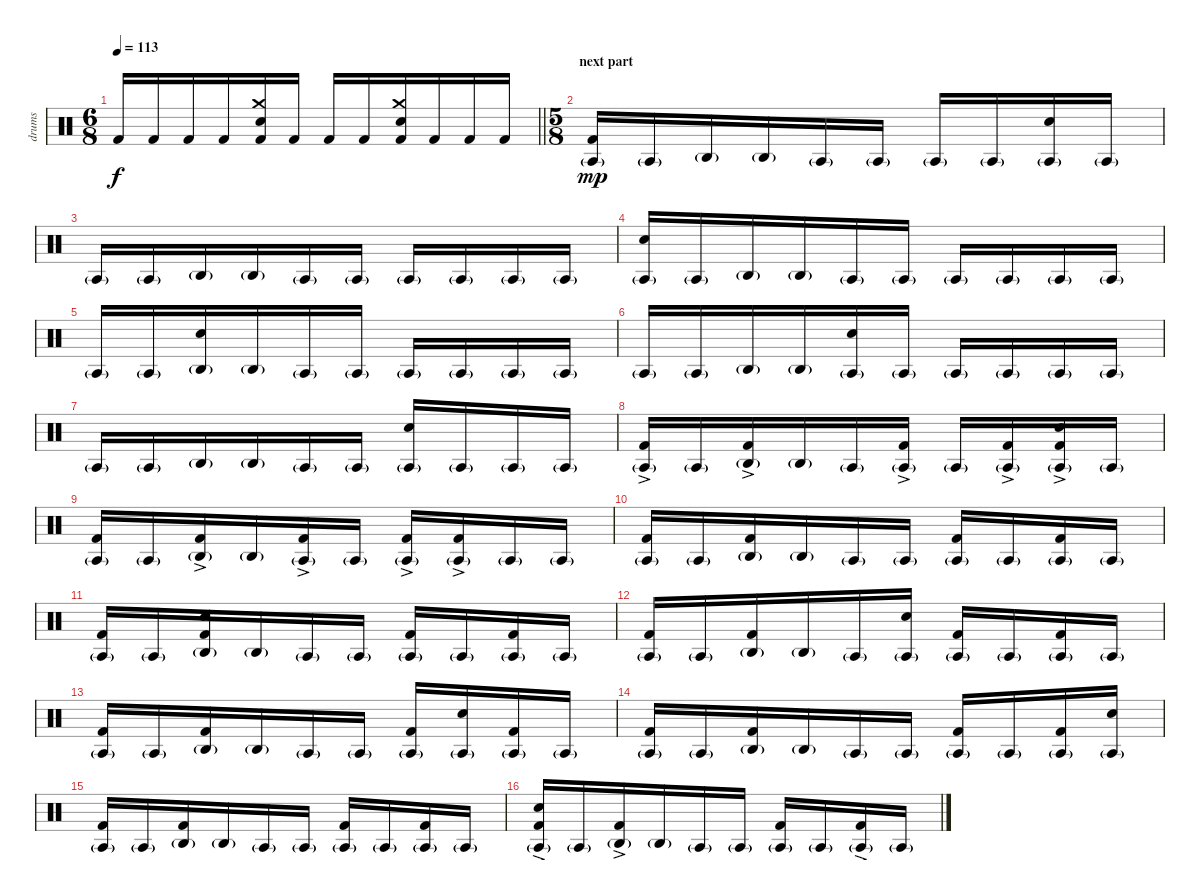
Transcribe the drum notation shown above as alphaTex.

\track ("drums" "drums") {instrument percussion}
\staff {score}
\articulation defaults
\ts (6 8)
\tempo 113
\clef neutral
\barLineRight lightlight
\ks c "Kick (hit) 2".16{dy f} "Kick (hit) 2".16 "Kick (hit) 2".16 "Kick (hit) 2".16
("Crash medium (hit)" "Electric Snare (hit)" "Kick (hit) 2").16 "Kick (hit) 2".16 "Kick (hit) 2".16 "Kick (hit) 2".16 ("Crash medium (hit)" "Electric Snare (hit)" "Kick (hit) 2").16 "Kick (hit) 2".16 "Kick (hit) 2".16 "Kick (hit) 2".16 |
\ts (5 8)
\section ("" "next part")
("Kick (hit) 2" "Agogo tow (hit)"{g}).16{dy mp} "Agogo tow (hit)"{g}.16 "Agogo high (hit)"{g}.16 "Agogo high (hit)"{g}.16 "Agogo tow (hit)"{g}.16 "Agogo tow (hit)"{g}.16 "Agogo tow (hit)"{g}.16 "Agogo tow (hit)"{g}.16 ("Electric Snare (hit)" "Agogo tow (hit)"{g}).16 "Agogo tow (hit)"{g}.16 |
"Agogo tow (hit)"{g}.16 "Agogo tow (hit)"{g}.16 "Agogo high (hit)"{g}.16 "Agogo high (hit)"{g}.16 "Agogo tow (hit)"{g}.16 "Agogo tow (hit)"{g}.16 "Agogo tow (hit)"{g}.16 "Agogo tow (hit)"{g}.16 "Agogo tow (hit)"{g}.16 "Agogo tow (hit)"{g}.16 |
("Electric Snare (hit)" "Agogo tow (hit)"{g}).16 "Agogo tow (hit)"{g}.16 "Agogo high (hit)"{g}.16 "Agogo high (hit)"{g}.16 "Agogo tow (hit)"{g}.16 "Agogo tow (hit)"{g}.16 "Agogo tow (hit)"{g}.16 "Agogo tow (hit)"{g}.16 "Agogo tow (hit)"{g}.16 "Agogo tow (hit)"{g}.16 |
"Agogo tow (hit)"{g}.16 "Agogo tow (hit)"{g}.16 ("Electric Snare (hit)" "Agogo high (hit)"{g}).16 "Agogo high (hit)"{g}.16 "Agogo tow (hit)"{g}.16 "Agogo tow (hit)"{g}.16 "Agogo tow (hit)"{g}.16 "Agogo tow (hit)"{g}.16 "Agogo tow (hit)"{g}.16 "Agogo tow (hit)"{g}.16 |
"Agogo tow (hit)"{g}.16 "Agogo tow (hit)"{g}.16 "Agogo high (hit)"{g}.16 "Agogo high (hit)"{g}.16 ("Electric Snare (hit)" "Agogo tow (hit)"{g}).16 "Agogo tow (hit)"{g}.16 "Agogo tow (hit)"{g}.16 "Agogo tow (hit)"{g}.16 "Agogo tow (hit)"{g}.16 "Agogo tow (hit)"{g}.16 |
"Agogo tow (hit)"{g}.16 "Agogo tow (hit)"{g}.16 "Agogo high (hit)"{g}.16 "Agogo high (hit)"{g}.16 "Agogo tow (hit)"{g}.16 "Agogo tow (hit)"{g}.16 ("Electric Snare (hit)" "Agogo tow (hit)"{g}).16 "Agogo tow (hit)"{g}.16 "Agogo tow (hit)"{g}.16 "Agogo tow (hit)"{g}.16 |
("Kick (hit) 2"{ac} "Agogo tow (hit)"{g}).16 "Agogo tow (hit)"{g}.16 ("Kick (hit) 2"{ac} "Agogo high (hit)"{g}).16 "Agogo high (hit)"{g}.16 "Agogo tow (hit)"{g}.16 ("Kick (hit) 2"{ac} "Agogo tow (hit)"{g}).16 "Agogo tow (hit)"{g}.16 ("Kick (hit) 2"{ac} "Agogo tow (hit)"{g}).16 ("Electric Snare (hit)" "Kick (hit) 2"{ac} "Agogo tow (hit)"{g}).16 "Agogo tow (hit)"{g}.16 |
("Kick (hit) 2" "Agogo tow (hit)"{g}).16 "Agogo tow (hit)"{g}.16 ("Kick (hit) 2"{ac} "Agogo high (hit)"{g}).16 "Agogo high (hit)"{g}.16 ("Kick (hit) 2"{ac} "Agogo tow (hit)"{g}).16 "Agogo tow (hit)"{g}.16 ("Kick (hit) 2"{ac} "Agogo tow (hit)"{g}).16 ("Kick (hit) 2"{ac} "Agogo tow (hit)"{g}).16 "Agogo tow (hit)"{g}.16 "Agogo tow (hit)"{g}.16 |
("Kick (hit) 2" "Agogo tow (hit)"{g}).16 "Agogo tow (hit)"{g}.16 ("Kick (hit) 2" "Agogo high (hit)"{g}).16 "Agogo high (hit)"{g}.16 "Agogo tow (hit)"{g}.16 "Agogo tow (hit)"{g}.16 ("Kick (hit) 2" "Agogo tow (hit)"{g}).16 "Agogo tow (hit)"{g}.16 ("Kick (hit) 2" "Agogo tow (hit)"{g}).16 "Agogo tow (hit)"{g}.16 |
("Kick (hit) 2" "Agogo tow (hit)"{g}).16 "Agogo tow (hit)"{g}.16 ("Electric Snare (hit)" "Kick (hit) 2" "Agogo high (hit)"{g}).16 "Agogo high (hit)"{g}.16 "Agogo tow (hit)"{g}.16 "Agogo tow (hit)"{g}.16 ("Kick (hit) 2" "Agogo tow (hit)"{g}).16 "Agogo tow (hit)"{g}.16 ("Kick (hit) 2" "Agogo tow (hit)"{g}).16 "Agogo tow (hit)"{g}.16 |
("Kick (hit) 2" "Agogo tow (hit)"{g}).16 "Agogo tow (hit)"{g}.16 ("Kick (hit) 2" "Agogo high (hit)"{g}).16 "Agogo high (hit)"{g}.16 "Agogo tow (hit)"{g}.16 ("Electric Snare (hit)" "Agogo tow (hit)"{g}).16 ("Kick (hit) 2" "Agogo tow (hit)"{g}).16 "Agogo tow (hit)"{g}.16 ("Kick (hit) 2" "Agogo tow (hit)"{g}).16 "Agogo tow (hit)"{g}.16 |
("Kick (hit) 2" "Agogo tow (hit)"{g}).16 "Agogo tow (hit)"{g}.16 ("Kick (hit) 2" "Agogo high (hit)"{g}).16 "Agogo high (hit)"{g}.16 "Agogo tow (hit)"{g}.16 "Agogo tow (hit)"{g}.16 ("Kick (hit) 2" "Agogo tow (hit)"{g}).16 ("Electric Snare (hit)" "Agogo tow (hit)"{g}).16 ("Kick (hit) 2" "Agogo tow (hit)"{g}).16 "Agogo tow (hit)"{g}.16 |
("Kick (hit) 2" "Agogo tow (hit)"{g}).16 "Agogo tow (hit)"{g}.16 ("Kick (hit) 2" "Agogo high (hit)"{g}).16 "Agogo high (hit)"{g}.16 "Agogo tow (hit)"{g}.16 "Agogo tow (hit)"{g}.16 ("Kick (hit) 2" "Agogo tow (hit)"{g}).16 "Agogo tow (hit)"{g}.16 ("Kick (hit) 2" "Agogo tow (hit)"{g}).16 ("Electric Snare (hit)" "Agogo tow (hit)"{g}).16 |
("Kick (hit) 2" "Agogo tow (hit)"{g}).16 "Agogo tow (hit)"{g}.16 ("Kick (hit) 2" "Agogo high (hit)"{g}).16 "Agogo high (hit)"{g}.16 "Agogo tow (hit)"{g}.16 "Agogo tow (hit)"{g}.16 ("Kick (hit) 2" "Agogo tow (hit)"{g}).16 "Agogo tow (hit)"{g}.16 ("Kick (hit) 2" "Agogo tow (hit)"{g}).16 "Agogo tow (hit)"{g}.16 |
("Electric Snare (hit)" "Kick (hit) 2"{ac} "Agogo tow (hit)"{g}).16 "Agogo tow (hit)"{g}.16 ("Kick (hit) 2"{ac} "Agogo high (hit)"{g}).16 "Agogo high (hit)"{g}.16 "Agogo tow (hit)"{g}.16 "Agogo tow (hit)"{g}.16 ("Kick (hit) 2" "Agogo tow (hit)"{g}).16 "Agogo tow (hit)"{g}.16 ("Kick (hit) 2"{ac} "Agogo tow (hit)"{g}).16 "Agogo tow (hit)"{g}.16
